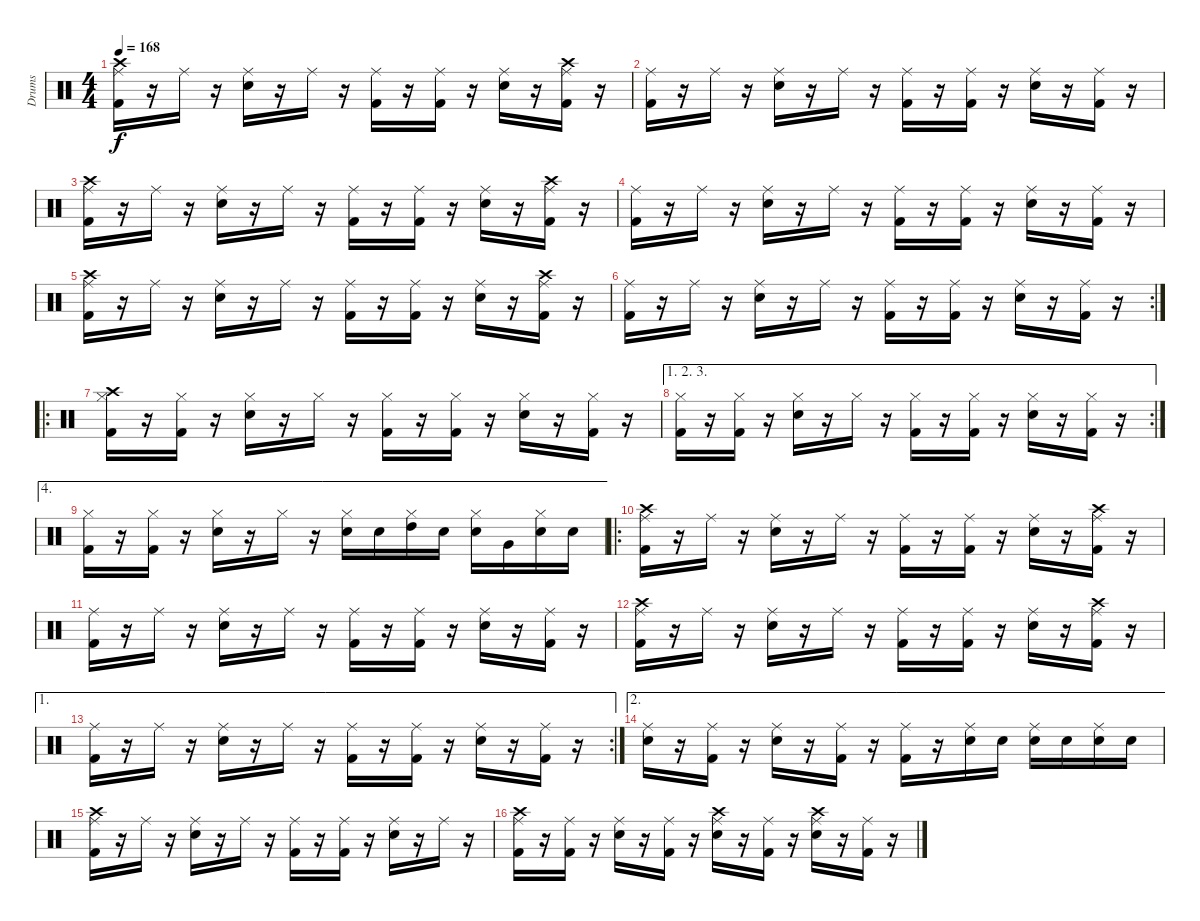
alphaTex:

\track ("Drums" "Drums") {instrument percussion}
\staff {score}
\articulation defaults
\ts (4 4)
\tempo 168
\clef neutral
\ks c
("Ride (middle)" "Kick (hit) 2" "Crash high (hit)").16{dy f} r.16 "Ride (middle)".16 r.16 ("Ride (middle)" "Snare (hit) 2").16 r.16 "Ride (middle)".16 r.16 ("Ride (middle)" "Kick (hit) 2").16 r.16 ("Ride (middle)" "Kick (hit) 2").16 r.16 ("Ride (middle)" "Snare (hit) 2").16 r.16 ("Ride (middle)" "Kick (hit) 2" "Crash high (hit)").16 r.16 |
("Ride (middle)" "Kick (hit) 2").16 r.16 "Ride (middle)".16 r.16 ("Ride (middle)" "Snare (hit) 2").16 r.16 "Ride (middle)".16 r.16 ("Ride (middle)" "Kick (hit) 2").16 r.16 ("Ride (middle)" "Kick (hit) 2").16 r.16 ("Ride (middle)" "Snare (hit) 2").16 r.16 ("Ride (middle)" "Kick (hit) 2").16 r.16 |
("Ride (middle)" "Kick (hit) 2" "Crash high (hit)").16 r.16 "Ride (middle)".16 r.16 ("Ride (middle)" "Snare (hit) 2").16 r.16 "Ride (middle)".16 r.16 ("Ride (middle)" "Kick (hit) 2").16 r.16 ("Ride (middle)" "Kick (hit) 2").16 r.16 ("Ride (middle)" "Snare (hit) 2").16 r.16 ("Ride (middle)" "Kick (hit) 2" "Crash high (hit)").16 r.16 |
("Ride (middle)" "Kick (hit) 2").16 r.16 "Ride (middle)".16 r.16 ("Ride (middle)" "Snare (hit) 2").16 r.16 "Ride (middle)".16 r.16 ("Ride (middle)" "Kick (hit) 2").16 r.16 ("Ride (middle)" "Kick (hit) 2").16 r.16 ("Ride (middle)" "Snare (hit) 2").16 r.16 ("Ride (middle)" "Kick (hit) 2").16 r.16 |
("Ride (middle)" "Kick (hit) 2" "Crash high (hit)").16 r.16 "Ride (middle)".16 r.16 ("Ride (middle)" "Snare (hit) 2").16 r.16 "Ride (middle)".16 r.16 ("Ride (middle)" "Kick (hit) 2").16 r.16 ("Ride (middle)" "Kick (hit) 2").16 r.16 ("Ride (middle)" "Snare (hit) 2").16 r.16 ("Ride (middle)" "Kick (hit) 2" "Crash high (hit)").16 r.16 |
\rc 2
("Ride (middle)" "Kick (hit) 2").16 r.16 "Ride (middle)".16 r.16 ("Ride (middle)" "Snare (hit) 2").16 r.16 "Ride (middle)".16 r.16 ("Ride (middle)" "Kick (hit) 2").16 r.16 ("Ride (middle)" "Kick (hit) 2").16 r.16 ("Ride (middle)" "Snare (hit) 2").16 r.16 ("Ride (middle)" "Kick (hit) 2").16 r.16 |
\ro
("Hi-Hat (closed)" "Kick (hit) 2" "Crash high (hit)").16 r.16 ("Hi-Hat (closed)" "Kick (hit) 2").16 r.16 ("Hi-Hat (closed)" "Snare (hit) 2").16 r.16 "Hi-Hat (closed)".16 r.16 ("Hi-Hat (closed)" "Kick (hit) 2").16 r.16 ("Hi-Hat (closed)" "Kick (hit) 2").16 r.16 ("Hi-Hat (closed)" "Snare (hit) 2").16 r.16 ("Hi-Hat (closed)" "Kick (hit) 2").16 r.16 |
\ae (1 2 3)
\rc 2
("Hi-Hat (closed)" "Kick (hit) 2").16 r.16 ("Hi-Hat (closed)" "Kick (hit) 2").16 r.16 ("Hi-Hat (closed)" "Snare (hit) 2").16 r.16 "Hi-Hat (closed)".16 r.16 ("Hi-Hat (closed)" "Kick (hit) 2").16 r.16 ("Hi-Hat (closed)" "Kick (hit) 2").16 r.16 ("Hi-Hat (closed)" "Snare (hit) 2").16 r.16 ("Hi-Hat (closed)" "Kick (hit) 2").16 r.16 |
\ae 4
("Hi-Hat (closed)" "Kick (hit) 2").16 r.16 ("Hi-Hat (closed)" "Kick (hit) 2").16 r.16 ("Hi-Hat (closed)" "Snare (hit) 2").16 r.16 "Hi-Hat (closed)".16 r.16 ("Hi-Hat (closed)" "Snare (hit) 2").16 "Snare (hit) 2".16 ("Hi-Hat (closed)" "High Tom (hit)").16 "Snare (hit) 2".16 ("Hi-Hat (closed)" "Snare (hit) 2").16 "Very Low Tom (hit)".16 ("Hi-Hat (closed)" "Snare (hit) 2").16 "Snare (hit) 2".16 |
\ro
("Ride (middle)" "Kick (hit) 2" "Crash high (hit)").16 r.16 "Ride (middle)".16 r.16 ("Ride (middle)" "Snare (hit) 2").16 r.16 "Ride (middle)".16 r.16 ("Ride (middle)" "Kick (hit) 2").16 r.16 ("Ride (middle)" "Kick (hit) 2").16 r.16 ("Ride (middle)" "Snare (hit) 2").16 r.16 ("Ride (middle)" "Kick (hit) 2" "Crash high (hit)").16 r.16 |
("Ride (middle)" "Kick (hit) 2").16 r.16 "Ride (middle)".16 r.16 ("Ride (middle)" "Snare (hit) 2").16 r.16 "Ride (middle)".16 r.16 ("Ride (middle)" "Kick (hit) 2").16 r.16 ("Ride (middle)" "Kick (hit) 2").16 r.16 ("Ride (middle)" "Snare (hit) 2").16 r.16 ("Ride (middle)" "Kick (hit) 2").16 r.16 |
("Ride (middle)" "Kick (hit) 2" "Crash high (hit)").16 r.16 "Ride (middle)".16 r.16 ("Ride (middle)" "Snare (hit) 2").16 r.16 "Ride (middle)".16 r.16 ("Ride (middle)" "Kick (hit) 2").16 r.16 ("Ride (middle)" "Kick (hit) 2").16 r.16 ("Ride (middle)" "Snare (hit) 2").16 r.16 ("Ride (middle)" "Kick (hit) 2" "Crash high (hit)").16 r.16 |
\ae 1
\rc 2
("Ride (middle)" "Kick (hit) 2").16 r.16 "Ride (middle)".16 r.16 ("Ride (middle)" "Snare (hit) 2").16 r.16 "Ride (middle)".16 r.16 ("Ride (middle)" "Kick (hit) 2").16 r.16 ("Ride (middle)" "Kick (hit) 2").16 r.16 ("Ride (middle)" "Snare (hit) 2").16 r.16 ("Ride (middle)" "Kick (hit) 2").16 r.16 |
\ae 2
("Ride (middle)" "Snare (hit) 2").16 r.16 ("Ride (middle)" "Kick (hit) 2").16 r.16 ("Ride (middle)" "Snare (hit) 2").16 r.16 ("Ride (middle)" "Kick (hit) 2").16 r.16 ("Ride (middle)" "Kick (hit) 2").16 r.16 ("Ride (middle)" "Snare (hit) 2").16 "Snare (hit) 2".16 ("Ride (middle)" "Snare (hit) 2").16 "Snare (hit) 2".16 ("Ride (middle)" "Snare (hit) 2").16 "Snare (hit) 2".16 |
("Ride (middle)" "Kick (hit) 2" "Crash high (hit)").16 r.16 "Ride (middle)".16 r.16 ("Ride (middle)" "Snare (hit) 2").16 r.16 "Ride (middle)".16 r.16 ("Ride (middle)" "Kick (hit) 2").16 r.16 ("Ride (middle)" "Kick (hit) 2").16 r.16 ("Ride (middle)" "Snare (hit) 2").16 r.16 "Ride (middle)".16 r.16 |
("Ride (middle)" "Kick (hit) 2" "Crash high (hit)").16 r.16 ("Ride (middle)" "Kick (hit) 2").16 r.16 ("Ride (middle)" "Snare (hit) 2").16 r.16 ("Ride (middle)" "Kick (hit) 2").16 r.16 ("Ride (middle)" "Snare (hit) 2" "Crash high (hit)").16 r.16 ("Ride (middle)" "Kick (hit) 2").16 r.16 ("Ride (middle)" "Snare (hit) 2" "Crash high (hit)").16 r.16 ("Ride (middle)" "Kick (hit) 2").16 r.16
